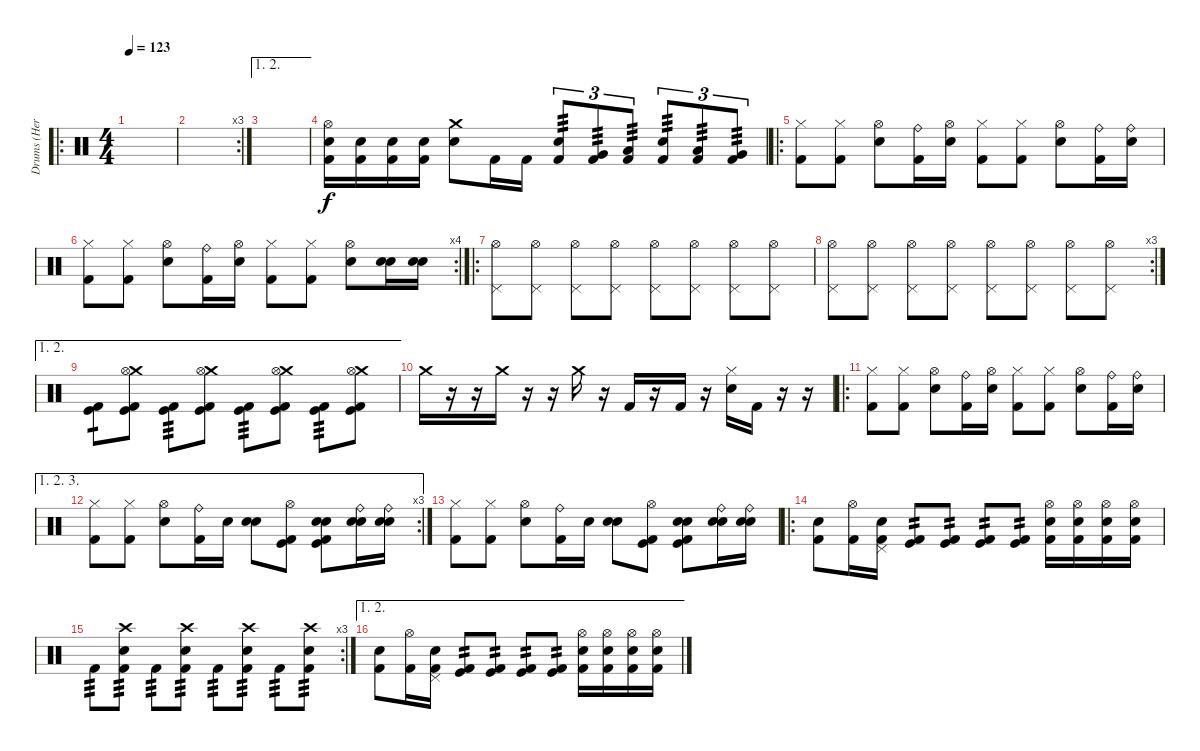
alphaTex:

\track ("Drums (Hervé)" "Drums (Her") {instrument percussion}
\staff {score}
\articulation defaults
\ro
\ts (4 4)
\tempo 123
\clef neutral
\ks c
|
\rc 3
|
\ae (1 2)
|
("Hi-Hat (open)" "Electric Snare (hit)" "Kick (hit) 2").16 ("Electric Snare (hit)" "Kick (hit) 2").16 ("Electric Snare (hit)" "Kick (hit) 2").16 ("Electric Snare (hit)" "Kick (hit) 2").16 ("Crash medium (hit)" "Electric Snare (hit)").8 "Kick (hit) 2".16 "Kick (hit) 2".16 ("Electric Snare (hit)" "Kick (hit) 2").8{tu (3 2) tp 3} ("Very Low Tom (hit)" "Kick (hit) 2").8{tu (3 2) tp 3} ("Low Floor Tom (hit)" "Kick (hit) 2").8{tu (3 2) tp 3} ("Electric Snare (hit)" "Kick (hit) 2").8{tu (3 2) tp 3} ("Low Tom (hit)" "Kick (hit) 2").8{tu (3 2) tp 3} ("Very Low Tom (hit)" "Kick (hit) 2").8{tu (3 2) tp 3} |
\ro
("Hi-Hat (closed)" "Kick (hit) 2").8 ("Hi-Hat (closed)" "Kick (hit) 2").8 ("Hi-Hat (open)" "Snare (hit) 2").8 ("Ride (bell)" "Kick (hit) 2").16 ("Hi-Hat (open)" "Electric Snare (hit)").16 ("Hi-Hat (closed)" "Kick (hit) 2").8 ("Hi-Hat (closed)" "Kick (hit) 2").8 ("Hi-Hat (open)" "Snare (hit) 2").8 ("Ride (bell)" "Kick (hit) 2").16 ("Ride (bell)" "Electric Snare (hit)").16 |
\rc 4
("Hi-Hat (closed)" "Kick (hit) 2").8 ("Hi-Hat (closed)" "Kick (hit) 2").8 ("Hi-Hat (open)" "Snare (hit) 2").8 ("Ride (bell)" "Kick (hit) 2").16 ("Hi-Hat (open)" "Electric Snare (hit)").16 ("Hi-Hat (closed)" "Kick (hit) 2").8 ("Hi-Hat (closed)" "Kick (hit) 2").8 ("Hi-Hat (open)" "Snare (hit) 2").8 ("Snare (hit) 2" "Snare (hit) 2").16 ("Snare (hit) 2" "Snare (hit) 2").16 |
\ro
("Pedal Hi-Hat (hit)" "Hi-Hat (open)").8{volume 10} ("Pedal Hi-Hat (hit)" "Hi-Hat (open)").8 ("Pedal Hi-Hat (hit)" "Hi-Hat (open)").8 ("Pedal Hi-Hat (hit)" "Hi-Hat (open)").8 ("Pedal Hi-Hat (hit)" "Hi-Hat (open)").8 ("Pedal Hi-Hat (hit)" "Hi-Hat (open)").8 ("Pedal Hi-Hat (hit)" "Hi-Hat (open)").8 ("Pedal Hi-Hat (hit)" "Hi-Hat (open)").8 |
\rc 3
("Pedal Hi-Hat (hit)" "Hi-Hat (open)").8 ("Pedal Hi-Hat (hit)" "Hi-Hat (open)").8 ("Pedal Hi-Hat (hit)" "Hi-Hat (open)").8 ("Pedal Hi-Hat (hit)" "Hi-Hat (open)").8 ("Pedal Hi-Hat (hit)" "Hi-Hat (open)").8 ("Pedal Hi-Hat (hit)" "Hi-Hat (open)").8 ("Pedal Hi-Hat (hit)" "Hi-Hat (open)").8 ("Pedal Hi-Hat (hit)" "Hi-Hat (open)").8 |
\ae (1 2)
("Kick (hit) 2" "Kick (hit)").8{tp 1 volume 13} ("Crash medium (hit)" "Hi-Hat (open)" "Kick (hit) 2" "Kick (hit)").8 ("Kick (hit) 2" "Kick (hit)").8{tp 3} ("Crash medium (hit)" "Hi-Hat (open)" "Kick (hit) 2" "Kick (hit)").8 ("Kick (hit) 2" "Kick (hit)").8{tp 3} ("Crash medium (hit)" "Hi-Hat (open)" "Kick (hit) 2" "Kick (hit)").8 ("Kick (hit) 2" "Kick (hit)").8{tp 3} ("Crash medium (hit)" "Hi-Hat (open)" "Kick (hit) 2" "Kick (hit)").8 |
"Crash medium (hit)".16 r.16 r.16 "Crash medium (hit)".16 r.16 r.16 "Crash medium (hit)".16 r.16 "Kick (hit) 2".16{volume 16} r.16 "Kick (hit) 2".16 r.16 ("Hi-Hat (closed)" "Snare (hit) 2").16 "Kick (hit) 2".16 r.16 r.16 |
\ro
("Hi-Hat (closed)" "Kick (hit) 2").8 ("Hi-Hat (closed)" "Kick (hit) 2").8 ("Hi-Hat (open)" "Snare (hit) 2").8 ("Ride (bell)" "Kick (hit) 2").16 ("Hi-Hat (open)" "Electric Snare (hit)").16 ("Hi-Hat (closed)" "Kick (hit) 2").8 ("Hi-Hat (closed)" "Kick (hit) 2").8 ("Hi-Hat (open)" "Snare (hit) 2").8 ("Ride (bell)" "Kick (hit) 2").16 ("Ride (bell)" "Electric Snare (hit)").16 |
\ae (1 2 3)
\rc 3
("Hi-Hat (closed)" "Kick (hit) 2").8 ("Hi-Hat (closed)" "Kick (hit) 2").8 ("Hi-Hat (open)" "Snare (hit) 2").8 ("Ride (bell)" "Kick (hit) 2").16 "Electric Snare (hit)".16 ("Electric Snare (hit)" "Electric Snare (hit)").8 ("Hi-Hat (open)" "Kick (hit)" "Kick (hit) 2").8 ("Electric Snare (hit)" "Electric Snare (hit)" "Kick (hit)" "Kick (hit) 2").8 ("Ride (bell)" "Snare (hit) 2" "Snare (hit) 2").16 ("Ride (bell)" "Snare (hit) 2" "Snare (hit) 2").16 |
("Hi-Hat (closed)" "Kick (hit) 2").8 ("Hi-Hat (closed)" "Kick (hit) 2").8 ("Hi-Hat (open)" "Snare (hit) 2").8 ("Ride (bell)" "Kick (hit) 2").16 "Electric Snare (hit)".16 ("Electric Snare (hit)" "Electric Snare (hit)").8 ("Hi-Hat (open)" "Kick (hit)" "Kick (hit) 2").8 ("Electric Snare (hit)" "Electric Snare (hit)" "Kick (hit)" "Kick (hit) 2").8 ("Ride (bell)" "Snare (hit) 2" "Snare (hit) 2").16 ("Ride (bell)" "Snare (hit) 2" "Snare (hit) 2").16 |
\ro
("Electric Snare (hit)" "Kick (hit) 2").8 ("Hi-Hat (open)" "Kick (hit) 2").16 ("Pedal Hi-Hat (hit)" "Electric Snare (hit)" "Kick (hit) 2").16 ("Kick (hit)" "Kick (hit) 2").8{tp 2} ("Kick (hit)" "Kick (hit) 2").8{tp 2} ("Kick (hit)" "Kick (hit) 2").8{tp 2} ("Kick (hit)" "Kick (hit) 2").8{tp 2} ("Hi-Hat (open)" "Electric Snare (hit)" "Kick (hit) 2").16 ("Hi-Hat (open)" "Electric Snare (hit)" "Kick (hit) 2").16 ("Hi-Hat (open)" "Electric Snare (hit)" "Kick (hit) 2").16 ("Hi-Hat (open)" "Electric Snare (hit)" "Kick (hit) 2").16 |
\rc 3 "Kick (hit) 2".8{tp 3}
("Crash high (hit)" "Electric Snare (hit)" "Kick (hit) 2").8{tp 3} "Kick (hit) 2".8{tp 3} ("Crash high (hit)" "Electric Snare (hit)" "Kick (hit) 2").8{tp 3} "Kick (hit) 2".8{tp 3} ("Crash high (hit)" "Electric Snare (hit)" "Kick (hit) 2").8{tp 3} "Kick (hit) 2".8{tp 3} ("Crash high (hit)" "Electric Snare (hit)" "Kick (hit) 2").8{tp 3} |
\ae (1 2)
("Electric Snare (hit)" "Kick (hit) 2").8 ("Hi-Hat (open)" "Kick (hit) 2").16 ("Pedal Hi-Hat (hit)" "Electric Snare (hit)" "Kick (hit) 2").16 ("Kick (hit)" "Kick (hit) 2").8{tp 2} ("Kick (hit)" "Kick (hit) 2").8{tp 2} ("Kick (hit)" "Kick (hit) 2").8{tp 2} ("Kick (hit)" "Kick (hit) 2").8{tp 2} ("Hi-Hat (open)" "Electric Snare (hit)" "Kick (hit) 2").16 ("Hi-Hat (open)" "Electric Snare (hit)" "Kick (hit) 2").16 ("Hi-Hat (open)" "Electric Snare (hit)" "Kick (hit) 2").16 ("Hi-Hat (open)" "Electric Snare (hit)" "Kick (hit) 2").16
